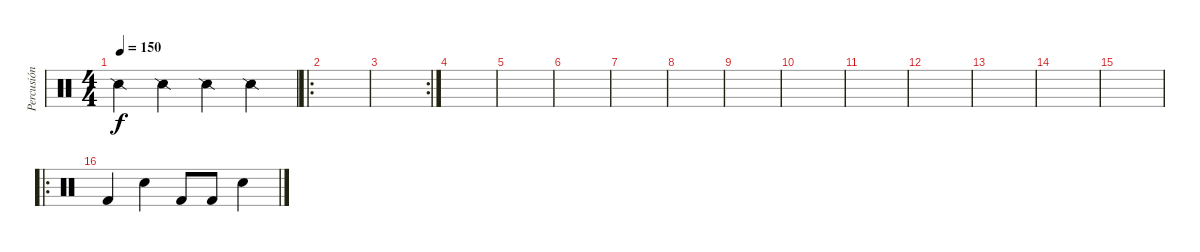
\track ("Percusión" "Percusión") {instrument percussion}
\staff {score}
\articulation defaults
\ts (4 4)
\tempo 150
\clef neutral
\ks c "Snare (side stick) 2".4{dy f} "Snare (side stick) 2".4 "Snare (side stick) 2".4 "Snare (side stick) 2".4
|
\ro
|
\rc 2
|
|
|
|
|
|
|
|
|
|
|
|
|
\ro "Kick (hit) 2".4 "Snare (hit) 2".4 "Kick (hit) 2".8 "Kick (hit) 2".8 "Snare (hit) 2".4
